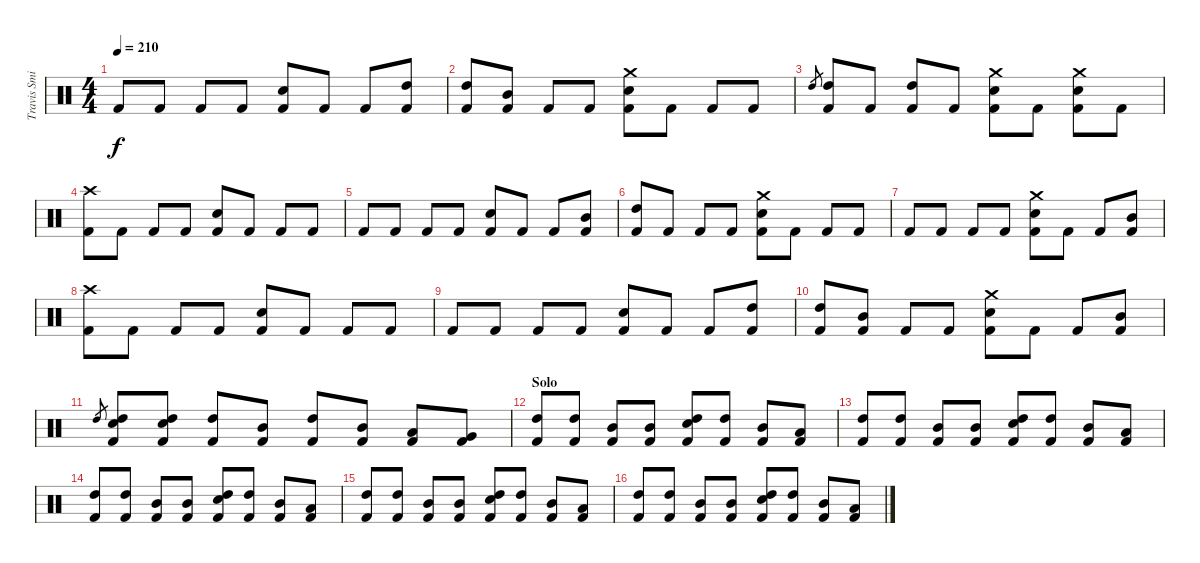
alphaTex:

\track ("Travis Smith" "Travis Smi") {instrument percussion}
\staff {score}
\articulation defaults
\ts (4 4)
\tempo 210
\clef neutral
\ks c "Kick (hit) 2".8{dy f} "Kick (hit) 2".8 "Kick (hit) 2".8 "Kick (hit) 2".8
("Snare (hit) 2" "Kick (hit) 2").8 "Kick (hit) 2".8 "Kick (hit) 2".8 ("High Tom (hit)" "Kick (hit) 2").8 |
("High Tom (hit)" "Kick (hit) 2").8 ("Mid Tom (hit)" "Kick (hit) 2").8 "Kick (hit) 2".8 "Kick (hit) 2".8 ("Crash medium (hit)" "Snare (hit) 2" "Kick (hit) 2").8 "Kick (hit) 2".8 "Kick (hit) 2".8 "Kick (hit) 2".8 |
"High Tom (hit)".8{gr} ("High Tom (hit)" "Kick (hit) 2").8 "Kick (hit) 2".8 ("High Tom (hit)" "Kick (hit) 2").8 "Kick (hit) 2".8 ("Crash medium (hit)" "Snare (hit) 2" "Kick (hit) 2").8 "Kick (hit) 2".8 ("Crash medium (hit)" "Snare (hit) 2" "Kick (hit) 2").8 "Kick (hit) 2".8 |
("Crash high (hit)" "Kick (hit) 2").8 "Kick (hit) 2".8 "Kick (hit) 2".8 "Kick (hit) 2".8 ("Snare (hit) 2" "Kick (hit) 2").8 "Kick (hit) 2".8 "Kick (hit) 2".8 "Kick (hit) 2".8 |
"Kick (hit) 2".8 "Kick (hit) 2".8 "Kick (hit) 2".8 "Kick (hit) 2".8 ("Snare (hit) 2" "Kick (hit) 2").8 "Kick (hit) 2".8 "Kick (hit) 2".8 ("Mid Tom (hit)" "Kick (hit) 2").8 |
("High Tom (hit)" "Kick (hit) 2").8 "Kick (hit) 2".8 "Kick (hit) 2".8 "Kick (hit) 2".8 ("Crash medium (hit)" "Snare (hit) 2" "Kick (hit) 2").8 "Kick (hit) 2".8 "Kick (hit) 2".8 "Kick (hit) 2".8 |
"Kick (hit) 2".8 "Kick (hit) 2".8 "Kick (hit) 2".8 "Kick (hit) 2".8 ("Crash medium (hit)" "Snare (hit) 2" "Kick (hit) 2").8 "Kick (hit) 2".8 "Kick (hit) 2".8 ("Mid Tom (hit)" "Kick (hit) 2").8 |
("Crash high (hit)" "Kick (hit) 2").8 "Kick (hit) 2".8 "Kick (hit) 2".8 "Kick (hit) 2".8 ("Snare (hit) 2" "Kick (hit) 2").8 "Kick (hit) 2".8 "Kick (hit) 2".8 "Kick (hit) 2".8 |
"Kick (hit) 2".8 "Kick (hit) 2".8 "Kick (hit) 2".8 "Kick (hit) 2".8 ("Snare (hit) 2" "Kick (hit) 2").8 "Kick (hit) 2".8 "Kick (hit) 2".8 ("High Tom (hit)" "Kick (hit) 2").8 |
("High Tom (hit)" "Kick (hit) 2").8 ("Mid Tom (hit)" "Kick (hit) 2").8 "Kick (hit) 2".8 "Kick (hit) 2".8 ("Crash medium (hit)" "Snare (hit) 2" "Kick (hit) 2").8 "Kick (hit) 2".8 "Kick (hit) 2".8 ("Mid Tom (hit)" "Kick (hit) 2").8 |
"High Tom (hit)".8{gr} ("High Tom (hit)" "Snare (hit) 2" "Kick (hit) 2").8 ("High Tom (hit)" "Snare (hit) 2" "Kick (hit) 2").8 ("High Tom (hit)" "Kick (hit) 2").8 ("Mid Tom (hit)" "Kick (hit) 2").8 ("High Tom (hit)" "Kick (hit) 2").8 ("Mid Tom (hit)" "Kick (hit) 2").8 ("Low Tom (hit)" "Kick (hit) 2").8 ("Very Low Tom (hit)" "Kick (hit) 2").8 |
\section ("" "Solo")
("High Tom (hit)" "Kick (hit) 2").8 ("High Tom (hit)" "Kick (hit) 2").8 ("Mid Tom (hit)" "Kick (hit) 2").8 ("Mid Tom (hit)" "Kick (hit) 2").8 ("High Tom (hit)" "Snare (hit) 2" "Kick (hit) 2").8 ("High Tom (hit)" "Kick (hit) 2").8 ("Mid Tom (hit)" "Kick (hit) 2").8 ("Low Tom (hit)" "Kick (hit) 2").8 |
("High Tom (hit)" "Kick (hit) 2").8 ("High Tom (hit)" "Kick (hit) 2").8 ("Mid Tom (hit)" "Kick (hit) 2").8 ("Mid Tom (hit)" "Kick (hit) 2").8 ("High Tom (hit)" "Snare (hit) 2" "Kick (hit) 2").8 ("High Tom (hit)" "Kick (hit) 2").8 ("Mid Tom (hit)" "Kick (hit) 2").8 ("Low Tom (hit)" "Kick (hit) 2").8 |
("High Tom (hit)" "Kick (hit) 2").8 ("High Tom (hit)" "Kick (hit) 2").8 ("Mid Tom (hit)" "Kick (hit) 2").8 ("Mid Tom (hit)" "Kick (hit) 2").8 ("High Tom (hit)" "Snare (hit) 2" "Kick (hit) 2").8 ("High Tom (hit)" "Kick (hit) 2").8 ("Mid Tom (hit)" "Kick (hit) 2").8 ("Low Tom (hit)" "Kick (hit) 2").8 |
("High Tom (hit)" "Kick (hit) 2").8 ("High Tom (hit)" "Kick (hit) 2").8 ("Mid Tom (hit)" "Kick (hit) 2").8 ("Mid Tom (hit)" "Kick (hit) 2").8 ("High Tom (hit)" "Snare (hit) 2" "Kick (hit) 2").8 ("High Tom (hit)" "Kick (hit) 2").8 ("Mid Tom (hit)" "Kick (hit) 2").8 ("Low Tom (hit)" "Kick (hit) 2").8 |
("High Tom (hit)" "Kick (hit) 2").8 ("High Tom (hit)" "Kick (hit) 2").8 ("Mid Tom (hit)" "Kick (hit) 2").8 ("Mid Tom (hit)" "Kick (hit) 2").8 ("High Tom (hit)" "Snare (hit) 2" "Kick (hit) 2").8 ("High Tom (hit)" "Kick (hit) 2").8 ("Mid Tom (hit)" "Kick (hit) 2").8 ("Low Tom (hit)" "Kick (hit) 2").8
